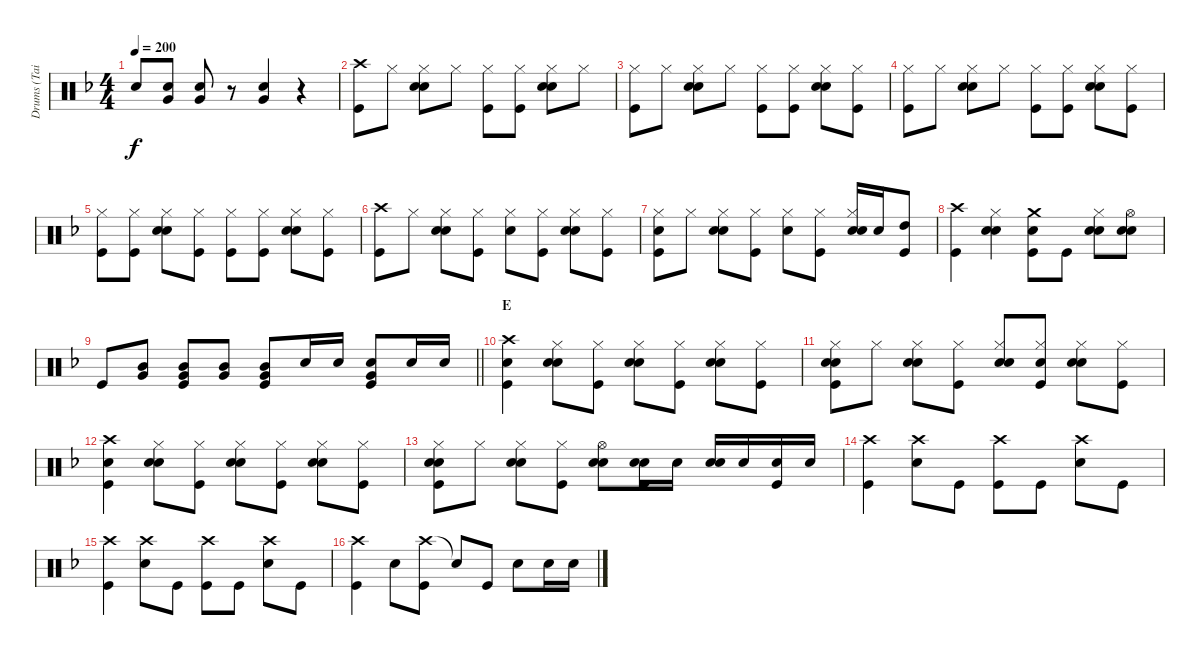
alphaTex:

\track ("Drums (Tainaka Ritsu)" "Drums (Tai") {instrument percussion}
\staff {score}
\articulation defaults
\ts (4 4)
\tempo 200
\clef neutral
\ks f "Snare (hit)"{t}.8{dy f}
("Snare (hit) 2" "Very Low Tom (hit)").8 ("Snare (hit) 2" "Very Low Tom (hit)").8 r.8 ("Snare (hit) 2" "Very Low Tom (hit)").4 r.4 |
("Crash high (hit)" "Kick (hit)").8 "Hi-Hat (closed)".8 ("Hi-Hat (closed)" "Hand Clap (hit)" "Snare (hit) 2").8 "Hi-Hat (closed)".8 ("Hi-Hat (closed)" "Kick (hit)").8 ("Hi-Hat (closed)" "Kick (hit)").8 ("Hi-Hat (closed)" "Hand Clap (hit)" "Snare (hit) 2").8 "Hi-Hat (closed)".8 |
("Hi-Hat (closed)" "Kick (hit)").8 "Hi-Hat (closed)".8 ("Hi-Hat (closed)" "Hand Clap (hit)" "Snare (hit) 2").8 "Hi-Hat (closed)".8 ("Hi-Hat (closed)" "Kick (hit)").8 ("Hi-Hat (closed)" "Kick (hit)").8 ("Hi-Hat (closed)" "Hand Clap (hit)" "Snare (hit) 2").8 ("Hi-Hat (closed)" "Kick (hit)").8 |
("Hi-Hat (closed)" "Kick (hit)").8 "Hi-Hat (closed)".8 ("Hi-Hat (closed)" "Hand Clap (hit)" "Snare (hit) 2").8 "Hi-Hat (closed)".8 ("Hi-Hat (closed)" "Kick (hit)").8 ("Hi-Hat (closed)" "Kick (hit)").8 ("Hi-Hat (closed)" "Hand Clap (hit)" "Snare (hit) 2").8 ("Hi-Hat (closed)" "Kick (hit)").8 |
("Hi-Hat (closed)" "Kick (hit)").8 ("Hi-Hat (closed)" "Kick (hit)").8 ("Hi-Hat (closed)" "Hand Clap (hit)" "Snare (hit) 2").8 ("Hi-Hat (closed)" "Kick (hit)").8 ("Hi-Hat (closed)" "Kick (hit)").8 ("Hi-Hat (closed)" "Kick (hit)").8 ("Hi-Hat (closed)" "Hand Clap (hit)" "Snare (hit) 2").8 ("Hi-Hat (closed)" "Kick (hit)").8 |
("Crash high (hit)" "Kick (hit)").8 "Hi-Hat (closed)".8 ("Hi-Hat (closed)" "Hand Clap (hit)" "Snare (hit) 2").8 ("Hi-Hat (closed)" "Kick (hit)").8 ("Hi-Hat (closed)" "Snare (hit) 2").8 ("Hi-Hat (closed)" "Kick (hit)").8 ("Hi-Hat (closed)" "Hand Clap (hit)" "Snare (hit) 2").8 ("Hi-Hat (closed)" "Kick (hit)").8 |
("Hi-Hat (closed)" "Snare (hit) 2" "Kick (hit)").8 "Hi-Hat (closed)".8 ("Hi-Hat (closed)" "Hand Clap (hit)" "Snare (hit) 2").8 ("Hi-Hat (closed)" "Kick (hit)").8 ("Hi-Hat (closed)" "Snare (hit) 2").8 ("Hi-Hat (closed)" "Kick (hit)").8 ("Hi-Hat (closed)" "Hand Clap (hit)" "Snare (hit) 2").16 "Snare (hit) 2".16 ("High Tom (hit)" "Kick (hit)").8 |
("Crash high (hit)" "Kick (hit)").4 ("Hi-Hat (closed)" "Hand Clap (hit)" "Snare (hit) 2").4 ("Crash medium (hit)" "Hand Clap (hit)" "Kick (hit)").8 "Kick (hit)".8 ("Hi-Hat (closed)" "Hand Clap (hit)" "Snare (hit) 2").8 ("Hi-Hat (open)" "Hand Clap (hit)" "Snare (hit) 2").8 |
\barLineRight lightlight "Kick (hit)".8
("Mid Tom (hit)" "Very Low Tom (hit)").8 ("Mid Tom (hit)" "Very Low Tom (hit)" "Kick (hit)").8 ("Mid Tom (hit)" "Very Low Tom (hit)").8 ("Mid Tom (hit)" "Very Low Tom (hit)" "Kick (hit)").8 "Snare (hit) 2".16 "Snare (hit) 2".16 ("Snare (hit) 2" "Very Low Tom (hit)" "Kick (hit)").8 "Snare (hit) 2".16 "Snare (hit) 2".16 |
\section ("" "E")
("Crash high (hit)" "Hand Clap (hit)" "Kick (hit)").4 ("Hi-Hat (closed)" "Hand Clap (hit)" "Snare (hit) 2").8 ("Hi-Hat (closed)" "Kick (hit)").8 ("Hi-Hat (closed)" "Hand Clap (hit)" "Snare (hit) 2").8 ("Hi-Hat (closed)" "Kick (hit)").8 ("Hi-Hat (closed)" "Hand Clap (hit)" "Snare (hit) 2").8 ("Hi-Hat (closed)" "Kick (hit)").8 |
("Hi-Hat (closed)" "Hand Clap (hit)" "Snare (hit) 2" "Kick (hit)").8 "Hi-Hat (closed)".8 ("Hi-Hat (closed)" "Hand Clap (hit)" "Snare (hit) 2").8 ("Hi-Hat (closed)" "Kick (hit)").8 ("Hi-Hat (closed)" "Hand Clap (hit)" "Snare (hit) 2").8 ("Hi-Hat (closed)" "Hand Clap (hit)" "Kick (hit)").8 ("Hi-Hat (closed)" "Hand Clap (hit)" "Snare (hit) 2").8 ("Hi-Hat (closed)" "Kick (hit)").8 |
("Crash high (hit)" "Hand Clap (hit)" "Kick (hit)").4 ("Hi-Hat (closed)" "Hand Clap (hit)" "Snare (hit) 2").8 ("Hi-Hat (closed)" "Kick (hit)").8 ("Hi-Hat (closed)" "Hand Clap (hit)" "Snare (hit) 2").8 ("Hi-Hat (closed)" "Kick (hit)").8 ("Hi-Hat (closed)" "Hand Clap (hit)" "Snare (hit) 2").8 ("Hi-Hat (closed)" "Kick (hit)").8 |
("Hi-Hat (closed)" "Hand Clap (hit)" "Snare (hit) 2" "Kick (hit)").8 "Hi-Hat (closed)".8 ("Hi-Hat (closed)" "Hand Clap (hit)" "Snare (hit) 2").8 ("Hi-Hat (closed)" "Kick (hit)").8 ("Hi-Hat (open)" "Hand Clap (hit)" "Snare (hit) 2").8 ("Hand Clap (hit)" "Snare (hit) 2" "Kick (hit)").16 "Snare (hit) 2".16 ("Hand Clap (hit)" "Snare (hit) 2").16 "Snare (hit) 2".16 ("Snare (hit) 2" "Kick (hit)").16 "Snare (hit) 2".16 |
("Crash high (hit)" "Kick (hit)").4 ("Crash high (hit)" "Snare (hit) 2").8 "Kick (hit)".8 ("Crash high (hit)" "Kick (hit)").8 "Kick (hit)".8 ("Crash high (hit)" "Snare (hit) 2").8 "Kick (hit)".8 |
("Crash high (hit)" "Kick (hit)").4 ("Crash high (hit)" "Snare (hit) 2").8 "Kick (hit)".8 ("Crash high (hit)" "Kick (hit)").8 "Kick (hit)".8 ("Crash high (hit)" "Snare (hit) 2").8 "Kick (hit)".8 |
("Crash high (hit)" "Kick (hit)").4 "Snare (hit) 2".8 ("Crash high (hit)" "Kick (hit)").8 "Snare (hit)"{t}.8 "Kick (hit)".8 "Snare (hit) 2".8 "Snare (hit) 2".16 "Snare (hit) 2".16
